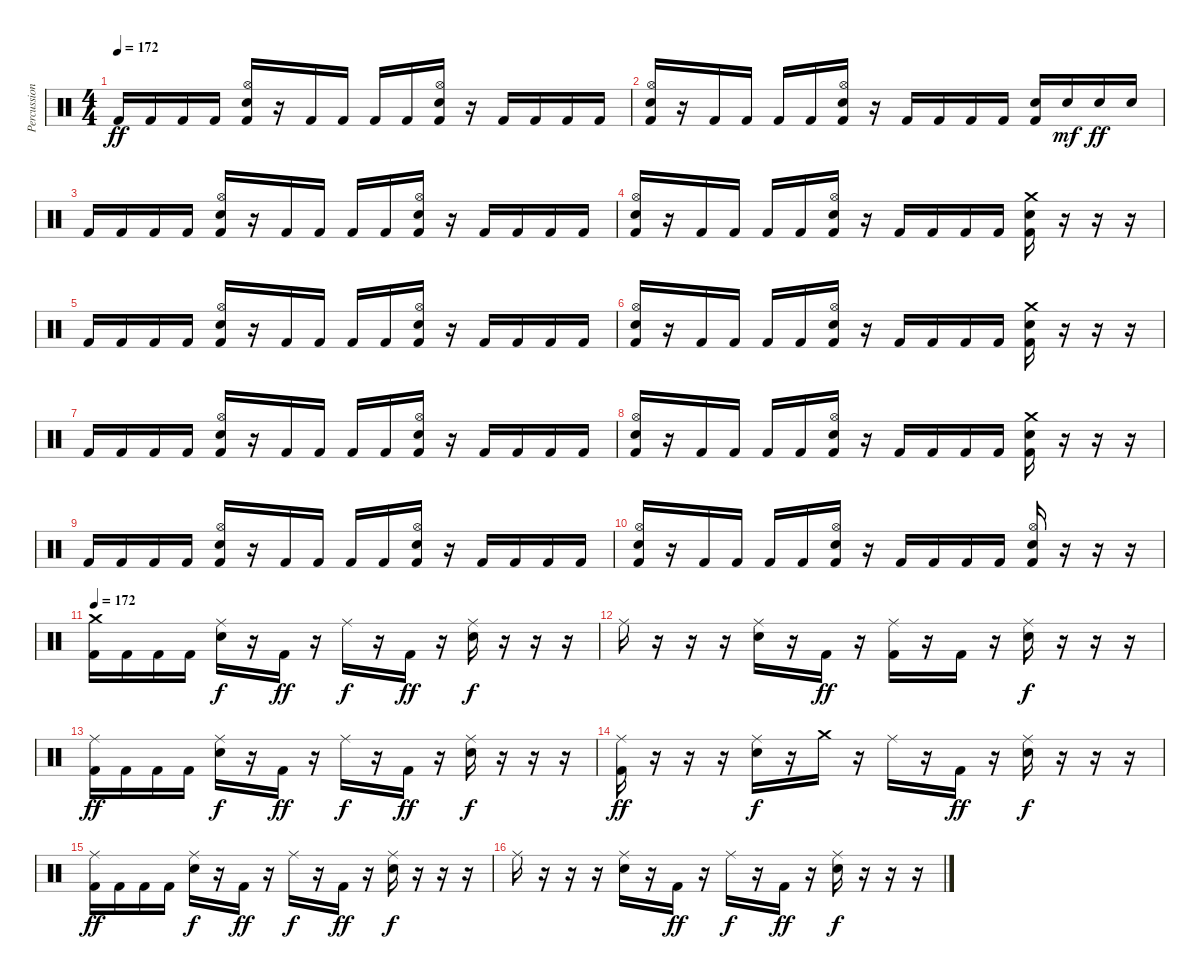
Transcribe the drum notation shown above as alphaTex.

\track ("Percussion" "Percussion") {instrument percussion}
\staff {score}
\articulation defaults
\ts (4 4)
\tempo 172
\clef neutral
\ks c "Kick (hit) 2".16{dy ff} "Kick (hit) 2".16 "Kick (hit) 2".16 "Kick (hit) 2".16
("Hi-Hat (open)" "Electric Snare (hit)" "Kick (hit) 2").16 r.16 "Kick (hit) 2".16 "Kick (hit) 2".16 "Kick (hit) 2".16 "Kick (hit) 2".16 ("Hi-Hat (open)" "Electric Snare (hit)" "Kick (hit) 2").16 r.16 "Kick (hit) 2".16 "Kick (hit) 2".16 "Kick (hit) 2".16 "Kick (hit) 2".16 |
("Hi-Hat (open)" "Electric Snare (hit)" "Kick (hit) 2").16 r.16 "Kick (hit) 2".16 "Kick (hit) 2".16 "Kick (hit) 2".16 "Kick (hit) 2".16 ("Hi-Hat (open)" "Electric Snare (hit)" "Kick (hit) 2").16 r.16 "Kick (hit) 2".16 "Kick (hit) 2".16 "Kick (hit) 2".16 "Kick (hit) 2".16 ("Electric Snare (hit)" "Kick (hit) 2").16 "Electric Snare (hit)".16{dy mf} "Electric Snare (hit)".16{dy ff} "Electric Snare (hit)".16 |
"Kick (hit) 2".16 "Kick (hit) 2".16 "Kick (hit) 2".16 "Kick (hit) 2".16 ("Hi-Hat (open)" "Electric Snare (hit)" "Kick (hit) 2").16 r.16 "Kick (hit) 2".16 "Kick (hit) 2".16 "Kick (hit) 2".16 "Kick (hit) 2".16 ("Hi-Hat (open)" "Electric Snare (hit)" "Kick (hit) 2").16 r.16 "Kick (hit) 2".16 "Kick (hit) 2".16 "Kick (hit) 2".16 "Kick (hit) 2".16 |
("Hi-Hat (open)" "Electric Snare (hit)" "Kick (hit) 2").16 r.16 "Kick (hit) 2".16 "Kick (hit) 2".16 "Kick (hit) 2".16 "Kick (hit) 2".16 ("Hi-Hat (open)" "Electric Snare (hit)" "Kick (hit) 2").16 r.16 "Kick (hit) 2".16 "Kick (hit) 2".16 "Kick (hit) 2".16 "Kick (hit) 2".16 ("Crash medium (hit)" "Electric Snare (hit)" "Kick (hit) 2").16 r.16 r.16 r.16 |
"Kick (hit) 2".16 "Kick (hit) 2".16 "Kick (hit) 2".16 "Kick (hit) 2".16 ("Hi-Hat (open)" "Electric Snare (hit)" "Kick (hit) 2").16 r.16 "Kick (hit) 2".16 "Kick (hit) 2".16 "Kick (hit) 2".16 "Kick (hit) 2".16 ("Hi-Hat (open)" "Electric Snare (hit)" "Kick (hit) 2").16 r.16 "Kick (hit) 2".16 "Kick (hit) 2".16 "Kick (hit) 2".16 "Kick (hit) 2".16 |
("Hi-Hat (open)" "Electric Snare (hit)" "Kick (hit) 2").16 r.16 "Kick (hit) 2".16 "Kick (hit) 2".16 "Kick (hit) 2".16 "Kick (hit) 2".16 ("Hi-Hat (open)" "Electric Snare (hit)" "Kick (hit) 2").16 r.16 "Kick (hit) 2".16 "Kick (hit) 2".16 "Kick (hit) 2".16 "Kick (hit) 2".16 ("Crash medium (hit)" "Electric Snare (hit)" "Kick (hit) 2").16 r.16 r.16 r.16 |
"Kick (hit) 2".16 "Kick (hit) 2".16 "Kick (hit) 2".16 "Kick (hit) 2".16 ("Hi-Hat (open)" "Electric Snare (hit)" "Kick (hit) 2").16 r.16 "Kick (hit) 2".16 "Kick (hit) 2".16 "Kick (hit) 2".16 "Kick (hit) 2".16 ("Hi-Hat (open)" "Electric Snare (hit)" "Kick (hit) 2").16 r.16 "Kick (hit) 2".16 "Kick (hit) 2".16 "Kick (hit) 2".16 "Kick (hit) 2".16 |
("Hi-Hat (open)" "Electric Snare (hit)" "Kick (hit) 2").16 r.16 "Kick (hit) 2".16 "Kick (hit) 2".16 "Kick (hit) 2".16 "Kick (hit) 2".16 ("Hi-Hat (open)" "Electric Snare (hit)" "Kick (hit) 2").16 r.16 "Kick (hit) 2".16 "Kick (hit) 2".16 "Kick (hit) 2".16 "Kick (hit) 2".16 ("Crash medium (hit)" "Electric Snare (hit)" "Kick (hit) 2").16 r.16 r.16 r.16 |
"Kick (hit) 2".16 "Kick (hit) 2".16 "Kick (hit) 2".16 "Kick (hit) 2".16 ("Hi-Hat (open)" "Electric Snare (hit)" "Kick (hit) 2").16 r.16 "Kick (hit) 2".16 "Kick (hit) 2".16 "Kick (hit) 2".16 "Kick (hit) 2".16 ("Hi-Hat (open)" "Electric Snare (hit)" "Kick (hit) 2").16 r.16 "Kick (hit) 2".16 "Kick (hit) 2".16 "Kick (hit) 2".16 "Kick (hit) 2".16 |
("Hi-Hat (open)" "Electric Snare (hit)" "Kick (hit) 2").16 r.16 "Kick (hit) 2".16 "Kick (hit) 2".16 "Kick (hit) 2".16 "Kick (hit) 2".16 ("Hi-Hat (open)" "Electric Snare (hit)" "Kick (hit) 2").16 r.16 "Kick (hit) 2".16 "Kick (hit) 2".16 "Kick (hit) 2".16 "Kick (hit) 2".16 ("Hi-Hat (open)" "Electric Snare (hit)" "Kick (hit) 2").16 r.16 r.16 r.16 |
\tempo 172
("Crash medium (hit)" "Kick (hit) 2").16 "Kick (hit) 2".16 "Kick (hit) 2".16 "Kick (hit) 2".16 ("Ride (middle)" "Electric Snare (hit)").16{dy f} r.16 "Kick (hit) 2".16{dy ff} r.16 "Ride (middle)".16{dy f} r.16 "Kick (hit) 2".16{dy ff} r.16 ("Ride (middle)" "Electric Snare (hit)").16{dy f} r.16 r.16 r.16 |
"Ride (middle)".16 r.16 r.16 r.16 ("Ride (middle)" "Electric Snare (hit)").16 r.16 "Kick (hit) 2".16{dy ff} r.16 ("Ride (middle)" "Kick (hit) 2").16 r.16 "Kick (hit) 2".16 r.16 ("Ride (middle)" "Electric Snare (hit)").16{dy f} r.16 r.16 r.16 |
("Ride (middle)" "Kick (hit) 2").16{dy ff} "Kick (hit) 2".16 "Kick (hit) 2".16 "Kick (hit) 2".16 ("Ride (middle)" "Electric Snare (hit)").16{dy f} r.16 "Kick (hit) 2".16{dy ff} r.16 "Ride (middle)".16{dy f} r.16 "Kick (hit) 2".16{dy ff} r.16 ("Ride (middle)" "Electric Snare (hit)").16{dy f} r.16 r.16 r.16 |
("Ride (middle)" "Kick (hit) 2").16{dy ff} r.16 r.16 r.16 ("Ride (middle)" "Electric Snare (hit)").16{dy f} r.16 "Crash medium (hit)".16 r.16 "Ride (middle)".16 r.16 "Kick (hit) 2".16{dy ff} r.16 ("Ride (middle)" "Electric Snare (hit)").16{dy f} r.16 r.16 r.16 |
("Ride (middle)" "Kick (hit) 2").16{dy ff} "Kick (hit) 2".16 "Kick (hit) 2".16 "Kick (hit) 2".16 ("Ride (middle)" "Electric Snare (hit)").16{dy f} r.16 "Kick (hit) 2".16{dy ff} r.16 "Ride (middle)".16{dy f} r.16 "Kick (hit) 2".16{dy ff} r.16 ("Ride (middle)" "Electric Snare (hit)").16{dy f} r.16 r.16 r.16 |
"Ride (middle)".16 r.16 r.16 r.16 ("Ride (middle)" "Electric Snare (hit)").16 r.16 "Kick (hit) 2".16{dy ff} r.16 "Ride (middle)".16{dy f} r.16 "Kick (hit) 2".16{dy ff} r.16 ("Ride (middle)" "Electric Snare (hit)").16{dy f} r.16 r.16 r.16
